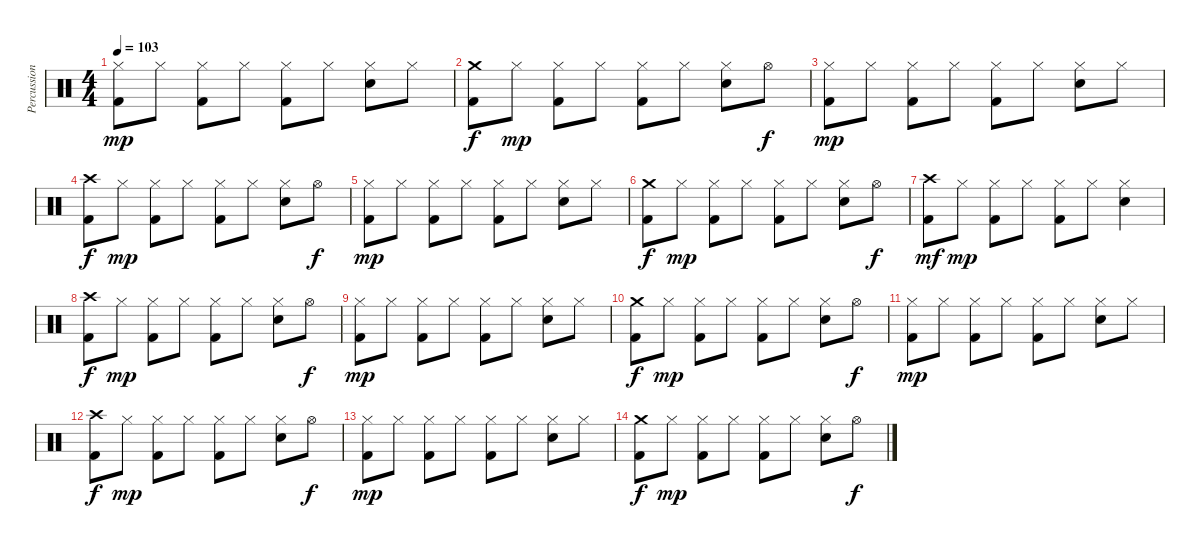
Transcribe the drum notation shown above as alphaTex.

\track ("Percussions" "Percussion") {instrument percussion}
\staff {score}
\articulation defaults
\ts (4 4)
\tempo 103
\clef neutral
\ks c
("Hi-Hat (closed)" "Kick (hit) 2").8{dy mp} "Hi-Hat (closed)".8 ("Hi-Hat (closed)" "Kick (hit) 2").8 "Hi-Hat (closed)".8 ("Hi-Hat (closed)" "Kick (hit) 2").8 "Hi-Hat (closed)".8 ("Hi-Hat (closed)" "Snare (hit) 2").8 "Hi-Hat (closed)".8 |
("Crash medium (hit)" "Kick (hit) 2").8{dy f} "Hi-Hat (closed)".8{dy mp} ("Hi-Hat (closed)" "Kick (hit) 2").8 "Hi-Hat (closed)".8 ("Hi-Hat (closed)" "Kick (hit) 2").8 "Hi-Hat (closed)".8 ("Hi-Hat (closed)" "Snare (hit) 2").8 "Hi-Hat (open)".8{dy f} |
("Hi-Hat (closed)" "Kick (hit) 2").8{dy mp} "Hi-Hat (closed)".8 ("Hi-Hat (closed)" "Kick (hit) 2").8 "Hi-Hat (closed)".8 ("Hi-Hat (closed)" "Kick (hit) 2").8 "Hi-Hat (closed)".8 ("Hi-Hat (closed)" "Snare (hit) 2").8 "Hi-Hat (closed)".8 |
("Crash high (hit)" "Kick (hit) 2").8{dy f} "Hi-Hat (closed)".8{dy mp} ("Hi-Hat (closed)" "Kick (hit) 2").8 "Hi-Hat (closed)".8 ("Hi-Hat (closed)" "Kick (hit) 2").8 "Hi-Hat (closed)".8 ("Hi-Hat (closed)" "Snare (hit) 2").8 "Hi-Hat (open)".8{dy f} |
("Hi-Hat (closed)" "Kick (hit) 2").8{dy mp} "Hi-Hat (closed)".8 ("Hi-Hat (closed)" "Kick (hit) 2").8 "Hi-Hat (closed)".8 ("Hi-Hat (closed)" "Kick (hit) 2").8 "Hi-Hat (closed)".8 ("Hi-Hat (closed)" "Snare (hit) 2").8 "Hi-Hat (closed)".8 |
("Crash medium (hit)" "Kick (hit) 2").8{dy f} "Hi-Hat (closed)".8{dy mp} ("Hi-Hat (closed)" "Kick (hit) 2").8 "Hi-Hat (closed)".8 ("Hi-Hat (closed)" "Kick (hit) 2").8 "Hi-Hat (closed)".8 ("Hi-Hat (closed)" "Snare (hit) 2").8 "Hi-Hat (open)".8{dy f} |
("Crash high (hit)" "Kick (hit) 2").8{dy mf} "Hi-Hat (closed)".8{dy mp} ("Hi-Hat (closed)" "Kick (hit) 2").8 "Hi-Hat (closed)".8 ("Hi-Hat (closed)" "Kick (hit) 2").8 "Hi-Hat (closed)".8 ("Hi-Hat (closed)" "Snare (hit) 2").4 |
("Crash high (hit)" "Kick (hit) 2").8{dy f} "Hi-Hat (closed)".8{dy mp} ("Hi-Hat (closed)" "Kick (hit) 2").8 "Hi-Hat (closed)".8 ("Hi-Hat (closed)" "Kick (hit) 2").8 "Hi-Hat (closed)".8 ("Hi-Hat (closed)" "Snare (hit) 2").8 "Hi-Hat (open)".8{dy f} |
("Hi-Hat (closed)" "Kick (hit) 2").8{dy mp} "Hi-Hat (closed)".8 ("Hi-Hat (closed)" "Kick (hit) 2").8 "Hi-Hat (closed)".8 ("Hi-Hat (closed)" "Kick (hit) 2").8 "Hi-Hat (closed)".8 ("Hi-Hat (closed)" "Snare (hit) 2").8 "Hi-Hat (closed)".8 |
("Crash medium (hit)" "Kick (hit) 2").8{dy f} "Hi-Hat (closed)".8{dy mp} ("Hi-Hat (closed)" "Kick (hit) 2").8 "Hi-Hat (closed)".8 ("Hi-Hat (closed)" "Kick (hit) 2").8 "Hi-Hat (closed)".8 ("Hi-Hat (closed)" "Snare (hit) 2").8 "Hi-Hat (open)".8{dy f} |
("Hi-Hat (closed)" "Kick (hit) 2").8{dy mp} "Hi-Hat (closed)".8 ("Hi-Hat (closed)" "Kick (hit) 2").8 "Hi-Hat (closed)".8 ("Hi-Hat (closed)" "Kick (hit) 2").8 "Hi-Hat (closed)".8 ("Hi-Hat (closed)" "Snare (hit) 2").8 "Hi-Hat (closed)".8 |
("Crash high (hit)" "Kick (hit) 2").8{dy f} "Hi-Hat (closed)".8{dy mp} ("Hi-Hat (closed)" "Kick (hit) 2").8 "Hi-Hat (closed)".8 ("Hi-Hat (closed)" "Kick (hit) 2").8 "Hi-Hat (closed)".8 ("Hi-Hat (closed)" "Snare (hit) 2").8 "Hi-Hat (open)".8{dy f} |
("Hi-Hat (closed)" "Kick (hit) 2").8{dy mp} "Hi-Hat (closed)".8 ("Hi-Hat (closed)" "Kick (hit) 2").8 "Hi-Hat (closed)".8 ("Hi-Hat (closed)" "Kick (hit) 2").8 "Hi-Hat (closed)".8 ("Hi-Hat (closed)" "Snare (hit) 2").8 "Hi-Hat (closed)".8 |
("Crash medium (hit)" "Kick (hit) 2").8{dy f} "Hi-Hat (closed)".8{dy mp} ("Hi-Hat (closed)" "Kick (hit) 2").8 "Hi-Hat (closed)".8 ("Hi-Hat (closed)" "Kick (hit) 2").8 "Hi-Hat (closed)".8 ("Hi-Hat (closed)" "Snare (hit) 2").8 "Hi-Hat (open)".8{dy f}
